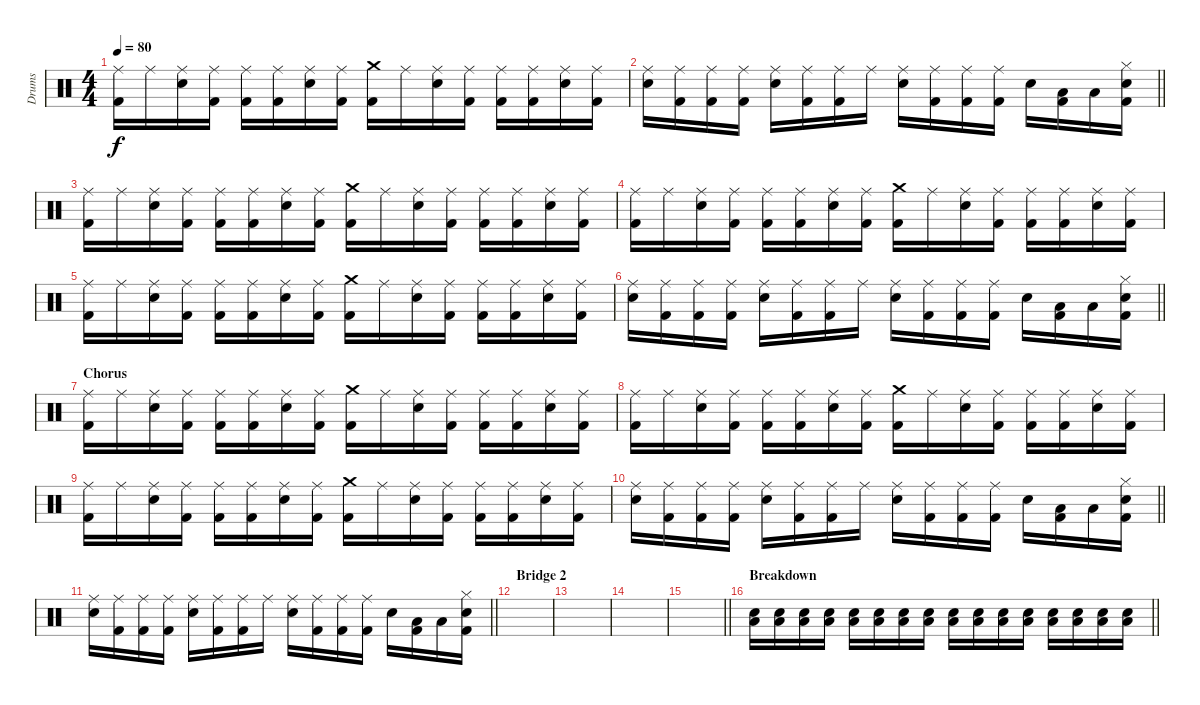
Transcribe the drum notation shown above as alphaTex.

\track ("Drums" "Drums") {instrument percussion}
\staff {score}
\articulation defaults
\ts (4 4)
\tempo 80
\clef neutral
\ks c
("Ride (middle)" "Kick (hit) 2").16{dy f} "Ride (middle)".16 ("Ride (middle)" "Snare (hit) 2").16 ("Ride (middle)" "Kick (hit) 2").16 ("Ride (middle)" "Kick (hit) 2").16 ("Ride (middle)" "Kick (hit) 2").16 ("Ride (middle)" "Snare (hit) 2").16 ("Ride (middle)" "Kick (hit) 2").16 ("Crash medium (hit)" "Kick (hit) 2").16 "Ride (middle)".16 ("Ride (middle)" "Snare (hit) 2").16 ("Ride (middle)" "Kick (hit) 2").16 ("Ride (middle)" "Kick (hit) 2").16 ("Ride (middle)" "Kick (hit) 2").16 ("Ride (middle)" "Snare (hit) 2").16 ("Ride (middle)" "Kick (hit) 2").16 |
\barLineRight lightlight
("Ride (middle)" "Snare (hit) 2").16 ("Ride (middle)" "Kick (hit) 2").16 ("Ride (middle)" "Kick (hit) 2").16 ("Ride (middle)" "Kick (hit) 2").16 ("Ride (middle)" "Snare (hit) 2").16 ("Ride (middle)" "Kick (hit) 2").16 ("Ride (middle)" "Kick (hit) 2").16 "Ride (middle)".16 ("Ride (middle)" "Snare (hit) 2").16 ("Ride (middle)" "Kick (hit) 2").16 ("Ride (middle)" "Kick (hit) 2").16 ("Ride (middle)" "Kick (hit) 2").16 "Snare (hit) 2".16 ("Low Tom (hit)" "Kick (hit) 2").16 "Low Tom (hit)".16 ("Hi-Hat (closed)" "Snare (hit) 2" "Kick (hit) 2").16 |
("Ride (middle)" "Kick (hit) 2").16 "Ride (middle)".16 ("Ride (middle)" "Snare (hit) 2").16 ("Ride (middle)" "Kick (hit) 2").16 ("Ride (middle)" "Kick (hit) 2").16 ("Ride (middle)" "Kick (hit) 2").16 ("Ride (middle)" "Snare (hit) 2").16 ("Ride (middle)" "Kick (hit) 2").16 ("Crash medium (hit)" "Kick (hit) 2").16 "Ride (middle)".16 ("Ride (middle)" "Snare (hit) 2").16 ("Ride (middle)" "Kick (hit) 2").16 ("Ride (middle)" "Kick (hit) 2").16 ("Ride (middle)" "Kick (hit) 2").16 ("Ride (middle)" "Snare (hit) 2").16 ("Ride (middle)" "Kick (hit) 2").16 |
("Ride (middle)" "Kick (hit) 2").16 "Ride (middle)".16 ("Ride (middle)" "Snare (hit) 2").16 ("Ride (middle)" "Kick (hit) 2").16 ("Ride (middle)" "Kick (hit) 2").16 ("Ride (middle)" "Kick (hit) 2").16 ("Ride (middle)" "Snare (hit) 2").16 ("Ride (middle)" "Kick (hit) 2").16 ("Crash medium (hit)" "Kick (hit) 2").16 "Ride (middle)".16 ("Ride (middle)" "Snare (hit) 2").16 ("Ride (middle)" "Kick (hit) 2").16 ("Ride (middle)" "Kick (hit) 2").16 ("Ride (middle)" "Kick (hit) 2").16 ("Ride (middle)" "Snare (hit) 2").16 ("Ride (middle)" "Kick (hit) 2").16 |
("Ride (middle)" "Kick (hit) 2").16 "Ride (middle)".16 ("Ride (middle)" "Snare (hit) 2").16 ("Ride (middle)" "Kick (hit) 2").16 ("Ride (middle)" "Kick (hit) 2").16 ("Ride (middle)" "Kick (hit) 2").16 ("Ride (middle)" "Snare (hit) 2").16 ("Ride (middle)" "Kick (hit) 2").16 ("Crash medium (hit)" "Kick (hit) 2").16 "Ride (middle)".16 ("Ride (middle)" "Snare (hit) 2").16 ("Ride (middle)" "Kick (hit) 2").16 ("Ride (middle)" "Kick (hit) 2").16 ("Ride (middle)" "Kick (hit) 2").16 ("Ride (middle)" "Snare (hit) 2").16 ("Ride (middle)" "Kick (hit) 2").16 |
\barLineRight lightlight
("Ride (middle)" "Snare (hit) 2").16 ("Ride (middle)" "Kick (hit) 2").16 ("Ride (middle)" "Kick (hit) 2").16 ("Ride (middle)" "Kick (hit) 2").16 ("Ride (middle)" "Snare (hit) 2").16 ("Ride (middle)" "Kick (hit) 2").16 ("Ride (middle)" "Kick (hit) 2").16 "Ride (middle)".16 ("Ride (middle)" "Snare (hit) 2").16 ("Ride (middle)" "Kick (hit) 2").16 ("Ride (middle)" "Kick (hit) 2").16 ("Ride (middle)" "Kick (hit) 2").16 "Snare (hit) 2".16 ("Low Tom (hit)" "Kick (hit) 2").16 "Low Tom (hit)".16 ("Hi-Hat (closed)" "Snare (hit) 2" "Kick (hit) 2").16 |
\section ("" "Chorus")
("Ride (middle)" "Kick (hit) 2").16 "Ride (middle)".16 ("Ride (middle)" "Snare (hit) 2").16 ("Ride (middle)" "Kick (hit) 2").16 ("Ride (middle)" "Kick (hit) 2").16 ("Ride (middle)" "Kick (hit) 2").16 ("Ride (middle)" "Snare (hit) 2").16 ("Ride (middle)" "Kick (hit) 2").16 ("Crash medium (hit)" "Kick (hit) 2").16 "Ride (middle)".16 ("Ride (middle)" "Snare (hit) 2").16 ("Ride (middle)" "Kick (hit) 2").16 ("Ride (middle)" "Kick (hit) 2").16 ("Ride (middle)" "Kick (hit) 2").16 ("Ride (middle)" "Snare (hit) 2").16 ("Ride (middle)" "Kick (hit) 2").16 |
("Ride (middle)" "Kick (hit) 2").16 "Ride (middle)".16 ("Ride (middle)" "Snare (hit) 2").16 ("Ride (middle)" "Kick (hit) 2").16 ("Ride (middle)" "Kick (hit) 2").16 ("Ride (middle)" "Kick (hit) 2").16 ("Ride (middle)" "Snare (hit) 2").16 ("Ride (middle)" "Kick (hit) 2").16 ("Crash medium (hit)" "Kick (hit) 2").16 "Ride (middle)".16 ("Ride (middle)" "Snare (hit) 2").16 ("Ride (middle)" "Kick (hit) 2").16 ("Ride (middle)" "Kick (hit) 2").16 ("Ride (middle)" "Kick (hit) 2").16 ("Ride (middle)" "Snare (hit) 2").16 ("Ride (middle)" "Kick (hit) 2").16 |
("Ride (middle)" "Kick (hit) 2").16 "Ride (middle)".16 ("Ride (middle)" "Snare (hit) 2").16 ("Ride (middle)" "Kick (hit) 2").16 ("Ride (middle)" "Kick (hit) 2").16 ("Ride (middle)" "Kick (hit) 2").16 ("Ride (middle)" "Snare (hit) 2").16 ("Ride (middle)" "Kick (hit) 2").16 ("Crash medium (hit)" "Kick (hit) 2").16 "Ride (middle)".16 ("Ride (middle)" "Snare (hit) 2").16 ("Ride (middle)" "Kick (hit) 2").16 ("Ride (middle)" "Kick (hit) 2").16 ("Ride (middle)" "Kick (hit) 2").16 ("Ride (middle)" "Snare (hit) 2").16 ("Ride (middle)" "Kick (hit) 2").16 |
\barLineRight lightlight
("Ride (middle)" "Snare (hit) 2").16 ("Ride (middle)" "Kick (hit) 2").16 ("Ride (middle)" "Kick (hit) 2").16 ("Ride (middle)" "Kick (hit) 2").16 ("Ride (middle)" "Snare (hit) 2").16 ("Ride (middle)" "Kick (hit) 2").16 ("Ride (middle)" "Kick (hit) 2").16 "Ride (middle)".16 ("Ride (middle)" "Snare (hit) 2").16 ("Ride (middle)" "Kick (hit) 2").16 ("Ride (middle)" "Kick (hit) 2").16 ("Ride (middle)" "Kick (hit) 2").16 "Snare (hit) 2".16 ("Low Tom (hit)" "Kick (hit) 2").16 "Low Tom (hit)".16 ("Hi-Hat (closed)" "Snare (hit) 2" "Kick (hit) 2").16 |
\barLineRight lightlight
("Ride (middle)" "Snare (hit) 2").16 ("Ride (middle)" "Kick (hit) 2").16 ("Ride (middle)" "Kick (hit) 2").16 ("Ride (middle)" "Kick (hit) 2").16 ("Ride (middle)" "Snare (hit) 2").16 ("Ride (middle)" "Kick (hit) 2").16 ("Ride (middle)" "Kick (hit) 2").16 "Ride (middle)".16 ("Ride (middle)" "Snare (hit) 2").16 ("Ride (middle)" "Kick (hit) 2").16 ("Ride (middle)" "Kick (hit) 2").16 ("Ride (middle)" "Kick (hit) 2").16 "Snare (hit) 2".16 ("Low Tom (hit)" "Kick (hit) 2").16 "Low Tom (hit)".16 ("Hi-Hat (closed)" "Snare (hit) 2" "Kick (hit) 2").16 |
\section ("" "Bridge 2")
|
|
|
\barLineRight lightlight
|
\section ("" "Breakdown")
\barLineRight lightlight
("Snare (hit) 2" "Low Tom (hit)").16 ("Snare (hit) 2" "Low Tom (hit)").16 ("Snare (hit) 2" "Low Tom (hit)").16 ("Snare (hit) 2" "Low Tom (hit)").16 ("Snare (hit) 2" "Low Tom (hit)").16 ("Snare (hit) 2" "Low Tom (hit)").16 ("Snare (hit) 2" "Low Tom (hit)").16 ("Snare (hit) 2" "Low Tom (hit)").16 ("Snare (hit) 2" "Low Tom (hit)").16 ("Snare (hit) 2" "Low Tom (hit)").16 ("Snare (hit) 2" "Low Tom (hit)").16 ("Snare (hit) 2" "Low Tom (hit)").16 ("Snare (hit) 2" "Low Tom (hit)").16 ("Snare (hit) 2" "Low Tom (hit)").16 ("Snare (hit) 2" "Low Tom (hit)").16 ("Snare (hit) 2" "Low Tom (hit)").16
